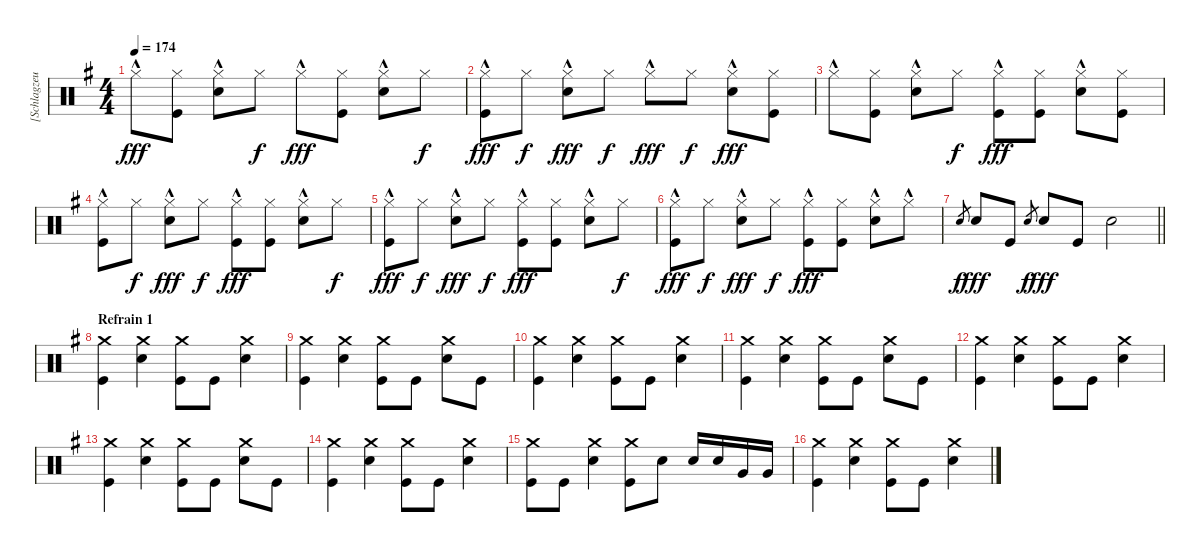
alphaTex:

\track ("[Schlagzeug]" "[Schlagzeu") {instrument percussion}
\staff {score}
\articulation defaults
\ts (4 4)
\tempo 174
\clef neutral
\ks g "Hi-Hat (closed)"{hac}.8{dy fff}
("Hi-Hat (closed)" "Kick (hit)").8 ("Hi-Hat (closed)"{hac} "Electric Snare (hit)").8 "Hi-Hat (closed)".8{dy f} "Hi-Hat (closed)"{hac}.8{dy fff} ("Hi-Hat (closed)" "Kick (hit)").8 ("Hi-Hat (closed)"{hac} "Electric Snare (hit)").8 "Hi-Hat (closed)".8{dy f} |
("Hi-Hat (closed)"{hac} "Kick (hit)").8{dy fff} "Hi-Hat (closed)".8{dy f} ("Hi-Hat (closed)"{hac} "Electric Snare (hit)").8{dy fff} "Hi-Hat (closed)".8{dy f} "Hi-Hat (closed)"{hac}.8{dy fff} "Hi-Hat (closed)".8{dy f} ("Hi-Hat (closed)"{hac} "Electric Snare (hit)").8{dy fff} ("Hi-Hat (closed)" "Kick (hit)").8 |
"Hi-Hat (closed)"{hac}.8 ("Hi-Hat (closed)" "Kick (hit)").8 ("Hi-Hat (closed)"{hac} "Electric Snare (hit)").8 "Hi-Hat (closed)".8{dy f} ("Hi-Hat (closed)"{hac} "Kick (hit)").8{dy fff} ("Hi-Hat (closed)" "Kick (hit)").8 ("Hi-Hat (closed)"{hac} "Electric Snare (hit)").8 ("Hi-Hat (closed)" "Kick (hit)").8 |
("Hi-Hat (closed)"{hac} "Kick (hit)").8 "Hi-Hat (closed)".8{dy f} ("Hi-Hat (closed)"{hac} "Electric Snare (hit)").8{dy fff} "Hi-Hat (closed)".8{dy f} ("Hi-Hat (closed)"{hac} "Kick (hit)").8{dy fff} ("Hi-Hat (closed)" "Kick (hit)").8 ("Hi-Hat (closed)"{hac} "Electric Snare (hit)").8 "Hi-Hat (closed)".8{dy f} |
("Hi-Hat (closed)"{hac} "Kick (hit)").8{dy fff} "Hi-Hat (closed)".8{dy f} ("Hi-Hat (closed)"{hac} "Electric Snare (hit)").8{dy fff} "Hi-Hat (closed)".8{dy f} ("Hi-Hat (closed)"{hac} "Kick (hit)").8{dy fff} ("Hi-Hat (closed)" "Kick (hit)").8 ("Hi-Hat (closed)"{hac} "Electric Snare (hit)").8 "Hi-Hat (closed)".8{dy f} |
("Hi-Hat (closed)"{hac} "Kick (hit)").8{dy fff} "Hi-Hat (closed)".8{dy f} ("Hi-Hat (closed)"{hac} "Electric Snare (hit)").8{dy fff} "Hi-Hat (closed)".8{dy f} ("Hi-Hat (closed)"{hac} "Kick (hit)").8{dy fff} ("Hi-Hat (closed)" "Kick (hit)").8 ("Hi-Hat (closed)"{hac} "Electric Snare (hit)").8 "Hi-Hat (closed)"{hac}.8 |
\barLineRight lightlight "Electric Snare (hit)".8{gr dy f} "Electric Snare (hit)".8{dy fff} "Kick (hit)".8 "Electric Snare (hit)".8{gr dy f} "Electric Snare (hit)".8{dy fff} "Kick (hit)".8 "Electric Snare (hit)".2
|
\section ("" "Refrain 1")
("Crash medium (hit)" "Kick (hit)").4 ("Crash medium (hit)" "Electric Snare (hit)").4 ("Crash medium (hit)" "Kick (hit)").8 "Kick (hit)".8 ("Crash medium (hit)" "Electric Snare (hit)").4 |
("Crash medium (hit)" "Kick (hit)").4 ("Crash medium (hit)" "Electric Snare (hit)").4 ("Crash medium (hit)" "Kick (hit)").8 "Kick (hit)".8 ("Crash medium (hit)" "Electric Snare (hit)").8 "Kick (hit)".8 |
("Crash medium (hit)" "Kick (hit)").4 ("Crash medium (hit)" "Electric Snare (hit)").4 ("Crash medium (hit)" "Kick (hit)").8 "Kick (hit)".8 ("Crash medium (hit)" "Electric Snare (hit)").4 |
("Crash medium (hit)" "Kick (hit)").4 ("Crash medium (hit)" "Electric Snare (hit)").4 ("Crash medium (hit)" "Kick (hit)").8 "Kick (hit)".8 ("Crash medium (hit)" "Electric Snare (hit)").8 "Kick (hit)".8 |
("Crash medium (hit)" "Kick (hit)").4 ("Crash medium (hit)" "Electric Snare (hit)").4 ("Crash medium (hit)" "Kick (hit)").8 "Kick (hit)".8 ("Crash medium (hit)" "Electric Snare (hit)").4 |
("Crash medium (hit)" "Kick (hit)").4 ("Crash medium (hit)" "Electric Snare (hit)").4 ("Crash medium (hit)" "Kick (hit)").8 "Kick (hit)".8 ("Crash medium (hit)" "Electric Snare (hit)").8 "Kick (hit)".8 |
("Crash medium (hit)" "Kick (hit)").4 ("Crash medium (hit)" "Electric Snare (hit)").4 ("Crash medium (hit)" "Kick (hit)").8 "Kick (hit)".8 ("Crash medium (hit)" "Electric Snare (hit)").4 |
("Crash medium (hit)" "Kick (hit)").8 "Kick (hit)".8 ("Crash medium (hit)" "Electric Snare (hit)").4 ("Crash medium (hit)" "Kick (hit)").8 "Electric Snare (hit)".8 "Electric Snare (hit)".16 "Electric Snare (hit)".16 "Very Low Tom (hit)".16 "Very Low Tom (hit)".16 |
("Crash medium (hit)" "Kick (hit)").4 ("Crash medium (hit)" "Electric Snare (hit)").4 ("Crash medium (hit)" "Kick (hit)").8 "Kick (hit)".8 ("Crash medium (hit)" "Electric Snare (hit)").4
